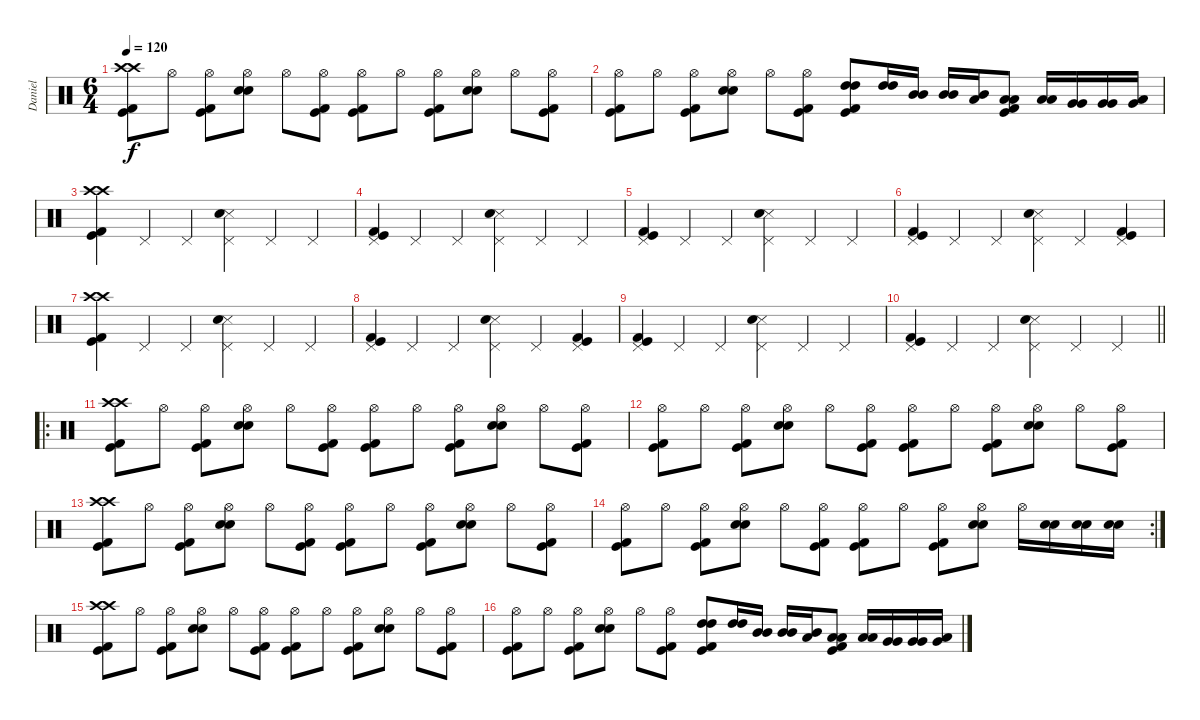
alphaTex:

\track ("Daniel" "Daniel") {instrument percussion}
\staff {score}
\articulation defaults
\ts (6 4)
\tempo 120
\clef neutral
\ks c
("Crash high (hit)" "Crash high (hit)" "Kick (hit) 2" "Kick (hit)").8{dy f} "Hi-Hat (open)".8 ("Hi-Hat (open)" "Kick (hit) 2" "Kick (hit)").8 ("Hi-Hat (open)" "Snare (hit) 2" "Electric Snare (hit)").8 "Hi-Hat (open)".8 ("Hi-Hat (open)" "Kick (hit) 2" "Kick (hit)").8 ("Hi-Hat (open)" "Kick (hit) 2" "Kick (hit)").8 "Hi-Hat (open)".8 ("Hi-Hat (open)" "Kick (hit) 2" "Kick (hit)").8 ("Hi-Hat (open)" "Snare (hit) 2" "Electric Snare (hit)").8 "Hi-Hat (open)".8 ("Hi-Hat (open)" "Kick (hit) 2" "Kick (hit)").8 |
("Hi-Hat (open)" "Kick (hit) 2" "Kick (hit)").8 "Hi-Hat (open)".8 ("Hi-Hat (open)" "Kick (hit) 2" "Kick (hit)").8 ("Hi-Hat (open)" "Snare (hit) 2" "Electric Snare (hit)").8 "Hi-Hat (open)".8 ("Hi-Hat (open)" "Kick (hit) 2" "Kick (hit)").8 ("High Tom (hit)" "High Tom (hit)" "Kick (hit) 2" "Kick (hit)").8 ("High Tom (hit)" "High Tom (hit)").16 ("Mid Tom (hit)" "Mid Tom (hit)").16 ("Mid Tom (hit)" "Mid Tom (hit)").16 ("Mid Tom (hit)" "Low Tom (hit)").16 ("Low Tom (hit)" "Low Tom (hit)" "Kick (hit) 2" "Kick (hit)").8 ("Low Tom (hit)" "Low Tom (hit)").16 ("Very Low Tom (hit)" "Very Low Tom (hit)").16 ("Very Low Tom (hit)" "Very Low Tom (hit)").16 ("Very Low Tom (hit)" "Low Floor Tom (hit)").16 |
("Crash high (hit)" "Crash high (hit)" "Kick (hit) 2" "Kick (hit)").4 "Pedal Hi-Hat (hit)".4 "Pedal Hi-Hat (hit)".4 ("Pedal Hi-Hat (hit)" "Snare (side stick) 3" "Electric Snare (hit)").4 "Pedal Hi-Hat (hit)".4 "Pedal Hi-Hat (hit)".4 |
("Pedal Hi-Hat (hit)" "Kick (hit) 2" "Kick (hit)").4 "Pedal Hi-Hat (hit)".4 "Pedal Hi-Hat (hit)".4 ("Pedal Hi-Hat (hit)" "Snare (side stick) 3" "Electric Snare (hit)").4 "Pedal Hi-Hat (hit)".4 "Pedal Hi-Hat (hit)".4 |
("Pedal Hi-Hat (hit)" "Kick (hit) 2" "Kick (hit)").4 "Pedal Hi-Hat (hit)".4 "Pedal Hi-Hat (hit)".4 ("Pedal Hi-Hat (hit)" "Snare (side stick) 3" "Electric Snare (hit)").4 "Pedal Hi-Hat (hit)".4 "Pedal Hi-Hat (hit)".4 |
("Pedal Hi-Hat (hit)" "Kick (hit) 2" "Kick (hit)").4 "Pedal Hi-Hat (hit)".4 "Pedal Hi-Hat (hit)".4 ("Pedal Hi-Hat (hit)" "Snare (side stick) 3" "Electric Snare (hit)").4 "Pedal Hi-Hat (hit)".4 ("Pedal Hi-Hat (hit)" "Kick (hit) 2" "Kick (hit)").4 |
("Crash high (hit)" "Crash high (hit)" "Kick (hit) 2" "Kick (hit)").4 "Pedal Hi-Hat (hit)".4 "Pedal Hi-Hat (hit)".4 ("Pedal Hi-Hat (hit)" "Snare (side stick) 3" "Electric Snare (hit)").4 "Pedal Hi-Hat (hit)".4 "Pedal Hi-Hat (hit)".4 |
("Pedal Hi-Hat (hit)" "Kick (hit) 2" "Kick (hit)").4 "Pedal Hi-Hat (hit)".4 "Pedal Hi-Hat (hit)".4 ("Pedal Hi-Hat (hit)" "Snare (side stick) 3" "Electric Snare (hit)").4 "Pedal Hi-Hat (hit)".4 ("Pedal Hi-Hat (hit)" "Kick (hit) 2" "Kick (hit)").4 |
("Pedal Hi-Hat (hit)" "Kick (hit) 2" "Kick (hit)").4 "Pedal Hi-Hat (hit)".4 "Pedal Hi-Hat (hit)".4 ("Pedal Hi-Hat (hit)" "Snare (side stick) 3" "Electric Snare (hit)").4 "Pedal Hi-Hat (hit)".4 "Pedal Hi-Hat (hit)".4 |
\barLineRight lightlight
("Pedal Hi-Hat (hit)" "Kick (hit) 2" "Kick (hit)").4 "Pedal Hi-Hat (hit)".4 "Pedal Hi-Hat (hit)".4 ("Pedal Hi-Hat (hit)" "Snare (side stick) 3" "Electric Snare (hit)").4 "Pedal Hi-Hat (hit)".4 "Pedal Hi-Hat (hit)".4 |
\ro
("Crash high (hit)" "Crash high (hit)" "Kick (hit) 2" "Kick (hit)").8 "Hi-Hat (open)".8 ("Hi-Hat (open)" "Kick (hit) 2" "Kick (hit)").8 ("Hi-Hat (open)" "Snare (hit) 2" "Electric Snare (hit)").8 "Hi-Hat (open)".8 ("Hi-Hat (open)" "Kick (hit) 2" "Kick (hit)").8 ("Hi-Hat (open)" "Kick (hit) 2" "Kick (hit)").8 "Hi-Hat (open)".8 ("Hi-Hat (open)" "Kick (hit) 2" "Kick (hit)").8 ("Hi-Hat (open)" "Snare (hit) 2" "Electric Snare (hit)").8 "Hi-Hat (open)".8 ("Hi-Hat (open)" "Kick (hit) 2" "Kick (hit)").8 |
("Hi-Hat (open)" "Kick (hit) 2" "Kick (hit)").8 "Hi-Hat (open)".8 ("Hi-Hat (open)" "Kick (hit) 2" "Kick (hit)").8 ("Hi-Hat (open)" "Snare (hit) 2" "Electric Snare (hit)").8 "Hi-Hat (open)".8 ("Hi-Hat (open)" "Kick (hit) 2" "Kick (hit)").8 ("Hi-Hat (open)" "Kick (hit) 2" "Kick (hit)").8 "Hi-Hat (open)".8 ("Hi-Hat (open)" "Kick (hit) 2" "Kick (hit)").8 ("Hi-Hat (open)" "Snare (hit) 2" "Electric Snare (hit)").8 "Hi-Hat (open)".8 ("Hi-Hat (open)" "Kick (hit) 2" "Kick (hit)").8 |
("Crash high (hit)" "Crash high (hit)" "Kick (hit) 2" "Kick (hit)").8 "Hi-Hat (open)".8 ("Hi-Hat (open)" "Kick (hit) 2" "Kick (hit)").8 ("Hi-Hat (open)" "Snare (hit) 2" "Electric Snare (hit)").8 "Hi-Hat (open)".8 ("Hi-Hat (open)" "Kick (hit) 2" "Kick (hit)").8 ("Hi-Hat (open)" "Kick (hit) 2" "Kick (hit)").8 "Hi-Hat (open)".8 ("Hi-Hat (open)" "Kick (hit) 2" "Kick (hit)").8 ("Hi-Hat (open)" "Snare (hit) 2" "Electric Snare (hit)").8 "Hi-Hat (open)".8 ("Hi-Hat (open)" "Kick (hit) 2" "Kick (hit)").8 |
\rc 2
("Hi-Hat (open)" "Kick (hit) 2" "Kick (hit)").8 "Hi-Hat (open)".8 ("Hi-Hat (open)" "Kick (hit) 2" "Kick (hit)").8 ("Hi-Hat (open)" "Snare (hit) 2" "Electric Snare (hit)").8 "Hi-Hat (open)".8 ("Hi-Hat (open)" "Kick (hit) 2" "Kick (hit)").8 ("Hi-Hat (open)" "Kick (hit) 2" "Kick (hit)").8 "Hi-Hat (open)".8 ("Hi-Hat (open)" "Kick (hit) 2" "Kick (hit)").8 ("Hi-Hat (open)" "Snare (hit) 2" "Electric Snare (hit)").8 "Hi-Hat (open)".16 ("Snare (hit) 2" "Electric Snare (hit)").16 ("Snare (hit) 2" "Electric Snare (hit)").16 ("Snare (hit) 2" "Electric Snare (hit)").16 |
("Crash high (hit)" "Crash high (hit)" "Kick (hit) 2" "Kick (hit)").8 "Hi-Hat (open)".8 ("Hi-Hat (open)" "Kick (hit) 2" "Kick (hit)").8 ("Hi-Hat (open)" "Snare (hit) 2" "Electric Snare (hit)").8 "Hi-Hat (open)".8 ("Hi-Hat (open)" "Kick (hit) 2" "Kick (hit)").8 ("Hi-Hat (open)" "Kick (hit) 2" "Kick (hit)").8 "Hi-Hat (open)".8 ("Hi-Hat (open)" "Kick (hit) 2" "Kick (hit)").8 ("Hi-Hat (open)" "Snare (hit) 2" "Electric Snare (hit)").8 "Hi-Hat (open)".8 ("Hi-Hat (open)" "Kick (hit) 2" "Kick (hit)").8 |
("Hi-Hat (open)" "Kick (hit) 2" "Kick (hit)").8 "Hi-Hat (open)".8 ("Hi-Hat (open)" "Kick (hit) 2" "Kick (hit)").8 ("Hi-Hat (open)" "Snare (hit) 2" "Electric Snare (hit)").8 "Hi-Hat (open)".8 ("Hi-Hat (open)" "Kick (hit) 2" "Kick (hit)").8 ("High Tom (hit)" "High Tom (hit)" "Kick (hit) 2" "Kick (hit)").8 ("High Tom (hit)" "High Tom (hit)").16 ("Mid Tom (hit)" "Mid Tom (hit)").16 ("Mid Tom (hit)" "Mid Tom (hit)").16 ("Mid Tom (hit)" "Low Tom (hit)").16 ("Low Tom (hit)" "Low Tom (hit)" "Kick (hit) 2" "Kick (hit)").8 ("Low Tom (hit)" "Low Tom (hit)").16 ("Very Low Tom (hit)" "Very Low Tom (hit)").16 ("Very Low Tom (hit)" "Very Low Tom (hit)").16 ("Very Low Tom (hit)" "Low Floor Tom (hit)").16
